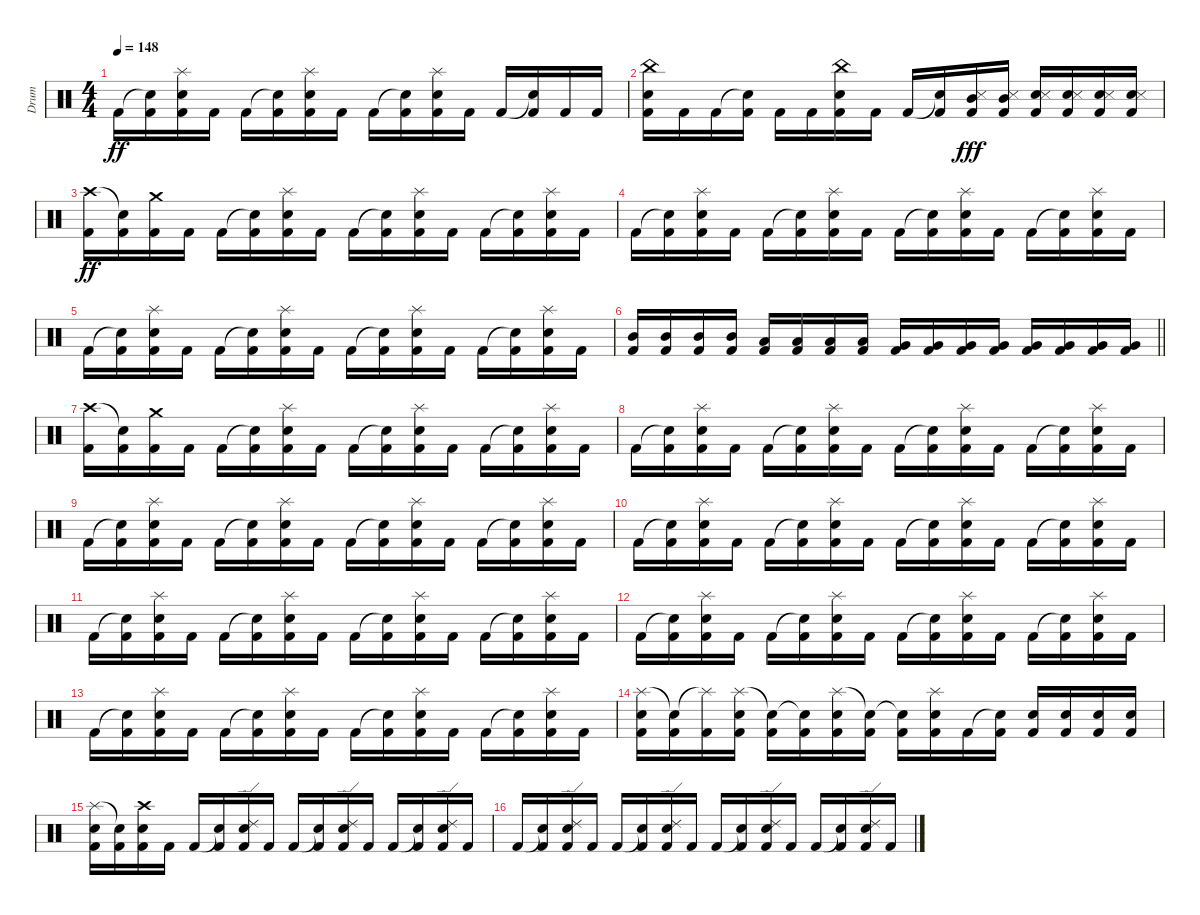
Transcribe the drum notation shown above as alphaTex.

\track ("Drum" "Drum") {instrument percussion}
\staff {score}
\articulation defaults
\ts (4 4)
\tempo 148
\clef neutral
\ks c "Kick (hit) 2".16{dy ff}
("Snare (hit)"{t} "Kick (hit) 2").16 ("Splash (hit)" "Snare (hit) 2" "Kick (hit) 2").16 "Kick (hit) 2".16 "Kick (hit) 2".16 ("Snare (hit)"{t} "Kick (hit) 2").16 ("Splash (hit)" "Snare (hit) 2" "Kick (hit) 2").16 "Kick (hit) 2".16 "Kick (hit) 2".16 ("Snare (hit)"{t} "Kick (hit) 2").16 ("Splash (hit)" "Snare (hit) 2" "Kick (hit) 2").16 "Kick (hit) 2".16 "Kick (hit) 2".16 ("Snare (hit)"{t} "Kick (hit) 2").16 "Kick (hit) 2".16 "Kick (hit) 2".16 |
("China (hit)" "Snare (hit) 2" "Kick (hit) 2").16 "Kick (hit) 2".16 "Kick (hit) 2".16 ("Snare (hit)"{t} "Kick (hit) 2").16 "Kick (hit) 2".16 "Kick (hit) 2".16 ("China (hit)" "Snare (hit) 2" "Kick (hit) 2").16 "Kick (hit) 2".16 "Kick (hit) 2".16 ("Snare (hit)"{t} "Kick (hit) 2").16 ("Mid Tom (hit)" "Snare (side stick) 3" "Kick (hit) 2").16{dy fff} ("Mid Tom (hit)" "Snare (side stick) 3" "Kick (hit) 2").16 ("Snare (hit) 2" "Snare (side stick) 3" "Kick (hit) 2").16 ("Snare (hit) 2" "Snare (side stick) 3" "Kick (hit) 2").16 ("Snare (hit) 2" "Snare (side stick) 3" "Kick (hit) 2").16 ("Snare (hit) 2" "Snare (side stick) 3" "Kick (hit) 2").16 |
("Crash high (hit)" "Kick (hit) 2").16{dy ff} ("Snare (hit)"{t} "Kick (hit) 2").16 ("Crash medium (hit)" "Kick (hit) 2").16 "Kick (hit) 2".16 "Kick (hit) 2".16 ("Snare (hit)"{t} "Kick (hit) 2").16 ("Splash (hit)" "Snare (hit) 2" "Kick (hit) 2").16 "Kick (hit) 2".16 "Kick (hit) 2".16 ("Snare (hit)"{t} "Kick (hit) 2").16 ("Splash (hit)" "Snare (hit) 2" "Kick (hit) 2").16 "Kick (hit) 2".16 "Kick (hit) 2".16 ("Snare (hit)"{t} "Kick (hit) 2").16 ("Splash (hit)" "Snare (hit) 2" "Kick (hit) 2").16 "Kick (hit) 2".16 |
"Kick (hit) 2".16 ("Snare (hit)"{t} "Kick (hit) 2").16 ("Splash (hit)" "Snare (hit) 2" "Kick (hit) 2").16 "Kick (hit) 2".16 "Kick (hit) 2".16 ("Snare (hit)"{t} "Kick (hit) 2").16 ("Splash (hit)" "Snare (hit) 2" "Kick (hit) 2").16 "Kick (hit) 2".16 "Kick (hit) 2".16 ("Snare (hit)"{t} "Kick (hit) 2").16 ("Splash (hit)" "Snare (hit) 2" "Kick (hit) 2").16 "Kick (hit) 2".16 "Kick (hit) 2".16 ("Snare (hit)"{t} "Kick (hit) 2").16 ("Splash (hit)" "Snare (hit) 2" "Kick (hit) 2").16 "Kick (hit) 2".16 |
"Kick (hit) 2".16 ("Snare (hit)"{t} "Kick (hit) 2").16 ("Splash (hit)" "Snare (hit) 2" "Kick (hit) 2").16 "Kick (hit) 2".16 "Kick (hit) 2".16 ("Snare (hit)"{t} "Kick (hit) 2").16 ("Splash (hit)" "Snare (hit) 2" "Kick (hit) 2").16 "Kick (hit) 2".16 "Kick (hit) 2".16 ("Snare (hit)"{t} "Kick (hit) 2").16 ("Splash (hit)" "Snare (hit) 2" "Kick (hit) 2").16 "Kick (hit) 2".16 "Kick (hit) 2".16 ("Snare (hit)"{t} "Kick (hit) 2").16 ("Splash (hit)" "Snare (hit) 2" "Kick (hit) 2").16 "Kick (hit) 2".16 |
\barLineRight lightlight
("Kick (hit) 2" "Mid Tom (hit)").16 ("Kick (hit) 2" "Mid Tom (hit)").16 ("Kick (hit) 2" "Mid Tom (hit)").16 ("Kick (hit) 2" "Mid Tom (hit)").16 ("Kick (hit) 2" "Low Tom (hit)").16 ("Kick (hit) 2" "Low Tom (hit)").16 ("Kick (hit) 2" "Low Tom (hit)").16 ("Kick (hit) 2" "Low Tom (hit)").16 ("Kick (hit) 2" "Very Low Tom (hit)").16 ("Kick (hit) 2" "Very Low Tom (hit)").16 ("Kick (hit) 2" "Very Low Tom (hit)").16 ("Kick (hit) 2" "Very Low Tom (hit)").16 ("Kick (hit) 2" "Very Low Tom (hit)").16 ("Kick (hit) 2" "Very Low Tom (hit)").16 ("Kick (hit) 2" "Very Low Tom (hit)").16 ("Kick (hit) 2" "Very Low Tom (hit)").16 |
\section ("" "")
("Crash high (hit)" "Kick (hit) 2").16 ("Snare (hit)"{t} "Kick (hit) 2").16 ("Crash medium (hit)" "Kick (hit) 2").16 "Kick (hit) 2".16 "Kick (hit) 2".16 ("Snare (hit)"{t} "Kick (hit) 2").16 ("Splash (hit)" "Snare (hit) 2" "Kick (hit) 2").16 "Kick (hit) 2".16 "Kick (hit) 2".16 ("Snare (hit)"{t} "Kick (hit) 2").16 ("Splash (hit)" "Snare (hit) 2" "Kick (hit) 2").16 "Kick (hit) 2".16 "Kick (hit) 2".16 ("Snare (hit)"{t} "Kick (hit) 2").16 ("Splash (hit)" "Snare (hit) 2" "Kick (hit) 2").16 "Kick (hit) 2".16 |
"Kick (hit) 2".16 ("Snare (hit)"{t} "Kick (hit) 2").16 ("Splash (hit)" "Snare (hit) 2" "Kick (hit) 2").16 "Kick (hit) 2".16 "Kick (hit) 2".16 ("Snare (hit)"{t} "Kick (hit) 2").16 ("Splash (hit)" "Snare (hit) 2" "Kick (hit) 2").16 "Kick (hit) 2".16 "Kick (hit) 2".16 ("Snare (hit)"{t} "Kick (hit) 2").16 ("Splash (hit)" "Snare (hit) 2" "Kick (hit) 2").16 "Kick (hit) 2".16 "Kick (hit) 2".16 ("Snare (hit)"{t} "Kick (hit) 2").16 ("Splash (hit)" "Snare (hit) 2" "Kick (hit) 2").16 "Kick (hit) 2".16 |
"Kick (hit) 2".16 ("Snare (hit)"{t} "Kick (hit) 2").16 ("Splash (hit)" "Snare (hit) 2" "Kick (hit) 2").16 "Kick (hit) 2".16 "Kick (hit) 2".16 ("Snare (hit)"{t} "Kick (hit) 2").16 ("Splash (hit)" "Snare (hit) 2" "Kick (hit) 2").16 "Kick (hit) 2".16 "Kick (hit) 2".16 ("Snare (hit)"{t} "Kick (hit) 2").16 ("Splash (hit)" "Snare (hit) 2" "Kick (hit) 2").16 "Kick (hit) 2".16 "Kick (hit) 2".16 ("Snare (hit)"{t} "Kick (hit) 2").16 ("Splash (hit)" "Snare (hit) 2" "Kick (hit) 2").16 "Kick (hit) 2".16 |
"Kick (hit) 2".16 ("Snare (hit)"{t} "Kick (hit) 2").16 ("Splash (hit)" "Snare (hit) 2" "Kick (hit) 2").16 "Kick (hit) 2".16 "Kick (hit) 2".16 ("Snare (hit)"{t} "Kick (hit) 2").16 ("Splash (hit)" "Snare (hit) 2" "Kick (hit) 2").16 "Kick (hit) 2".16 "Kick (hit) 2".16 ("Snare (hit)"{t} "Kick (hit) 2").16 ("Splash (hit)" "Snare (hit) 2" "Kick (hit) 2").16 "Kick (hit) 2".16 "Kick (hit) 2".16 ("Snare (hit)"{t} "Kick (hit) 2").16 ("Splash (hit)" "Snare (hit) 2" "Kick (hit) 2").16 "Kick (hit) 2".16 |
"Kick (hit) 2".16 ("Snare (hit)"{t} "Kick (hit) 2").16 ("Splash (hit)" "Snare (hit) 2" "Kick (hit) 2").16 "Kick (hit) 2".16 "Kick (hit) 2".16 ("Snare (hit)"{t} "Kick (hit) 2").16 ("Splash (hit)" "Snare (hit) 2" "Kick (hit) 2").16 "Kick (hit) 2".16 "Kick (hit) 2".16 ("Snare (hit)"{t} "Kick (hit) 2").16 ("Splash (hit)" "Snare (hit) 2" "Kick (hit) 2").16 "Kick (hit) 2".16 "Kick (hit) 2".16 ("Snare (hit)"{t} "Kick (hit) 2").16 ("Splash (hit)" "Snare (hit) 2" "Kick (hit) 2").16 "Kick (hit) 2".16 |
"Kick (hit) 2".16 ("Snare (hit)"{t} "Kick (hit) 2").16 ("Splash (hit)" "Snare (hit) 2" "Kick (hit) 2").16 "Kick (hit) 2".16 "Kick (hit) 2".16 ("Snare (hit)"{t} "Kick (hit) 2").16 ("Splash (hit)" "Snare (hit) 2" "Kick (hit) 2").16 "Kick (hit) 2".16 "Kick (hit) 2".16 ("Snare (hit)"{t} "Kick (hit) 2").16 ("Splash (hit)" "Snare (hit) 2" "Kick (hit) 2").16 "Kick (hit) 2".16 "Kick (hit) 2".16 ("Snare (hit)"{t} "Kick (hit) 2").16 ("Splash (hit)" "Snare (hit) 2" "Kick (hit) 2").16 "Kick (hit) 2".16 |
"Kick (hit) 2".16 ("Snare (hit)"{t} "Kick (hit) 2").16 ("Splash (hit)" "Snare (hit) 2" "Kick (hit) 2").16 "Kick (hit) 2".16 "Kick (hit) 2".16 ("Snare (hit)"{t} "Kick (hit) 2").16 ("Splash (hit)" "Snare (hit) 2" "Kick (hit) 2").16 "Kick (hit) 2".16 "Kick (hit) 2".16 ("Snare (hit)"{t} "Kick (hit) 2").16 ("Splash (hit)" "Snare (hit) 2" "Kick (hit) 2").16 "Kick (hit) 2".16 "Kick (hit) 2".16 ("Snare (hit)"{t} "Kick (hit) 2").16 ("Splash (hit)" "Snare (hit) 2" "Kick (hit) 2").16 "Kick (hit) 2".16 |
("Splash (hit)" "Snare (hit) 2" "Kick (hit) 2").16 ("Snare (hit)"{t} "Kick (hit) 2").16 ("Splash (hit)"{t} "Kick (hit) 2").16 ("Splash (hit)" "Snare (hit) 2" "Kick (hit) 2").16 ("Snare (hit)"{t} "Kick (hit) 2").16 ("Snare (hit)"{t} "Kick (hit) 2").16 ("Splash (hit)" "Snare (hit) 2" "Kick (hit) 2").16 ("Snare (hit)"{t} "Kick (hit) 2").16 ("Snare (hit)"{t} "Kick (hit) 2").16 ("Splash (hit)" "Snare (hit) 2" "Kick (hit) 2").16 "Kick (hit) 2".16 ("Snare (hit)"{t} "Kick (hit) 2").16 ("Snare (hit) 2" "Kick (hit) 2").16 ("Snare (hit) 2" "Kick (hit) 2").16 ("Snare (hit) 2" "Kick (hit) 2").16 ("Snare (hit) 2" "Kick (hit) 2").16 |
("Splash (hit)" "Snare (hit) 2" "Kick (hit) 2").16 ("Snare (hit)"{t} "Kick (hit) 2").16 ("Crash high (hit)" "Snare (hit) 2" "Kick (hit) 2").16 "Kick (hit) 2".16 "Kick (hit) 2".16 ("Snare (hit)"{t} "Kick (hit) 2").16 ("Ride (edge) 2" "Snare (hit) 2" "Kick (hit) 2").16 "Kick (hit) 2".16 "Kick (hit) 2".16 ("Snare (hit)"{t} "Kick (hit) 2").16 ("Ride (edge) 2" "Snare (hit) 2" "Kick (hit) 2").16 "Kick (hit) 2".16 "Kick (hit) 2".16 ("Snare (hit)"{t} "Kick (hit) 2").16 ("Ride (edge) 2" "Snare (hit) 2" "Kick (hit) 2").16 "Kick (hit) 2".16 |
"Kick (hit) 2".16 ("Snare (hit)"{t} "Kick (hit) 2").16 ("Ride (edge) 2" "Snare (hit) 2" "Kick (hit) 2").16 "Kick (hit) 2".16 "Kick (hit) 2".16 ("Snare (hit)"{t} "Kick (hit) 2").16 ("Ride (edge) 2" "Snare (hit) 2" "Kick (hit) 2").16 "Kick (hit) 2".16 "Kick (hit) 2".16 ("Snare (hit)"{t} "Kick (hit) 2").16 ("Ride (edge) 2" "Snare (hit) 2" "Kick (hit) 2").16 "Kick (hit) 2".16 "Kick (hit) 2".16 ("Snare (hit)"{t} "Kick (hit) 2").16 ("Ride (edge) 2" "Snare (hit) 2" "Kick (hit) 2").16 "Kick (hit) 2".16
